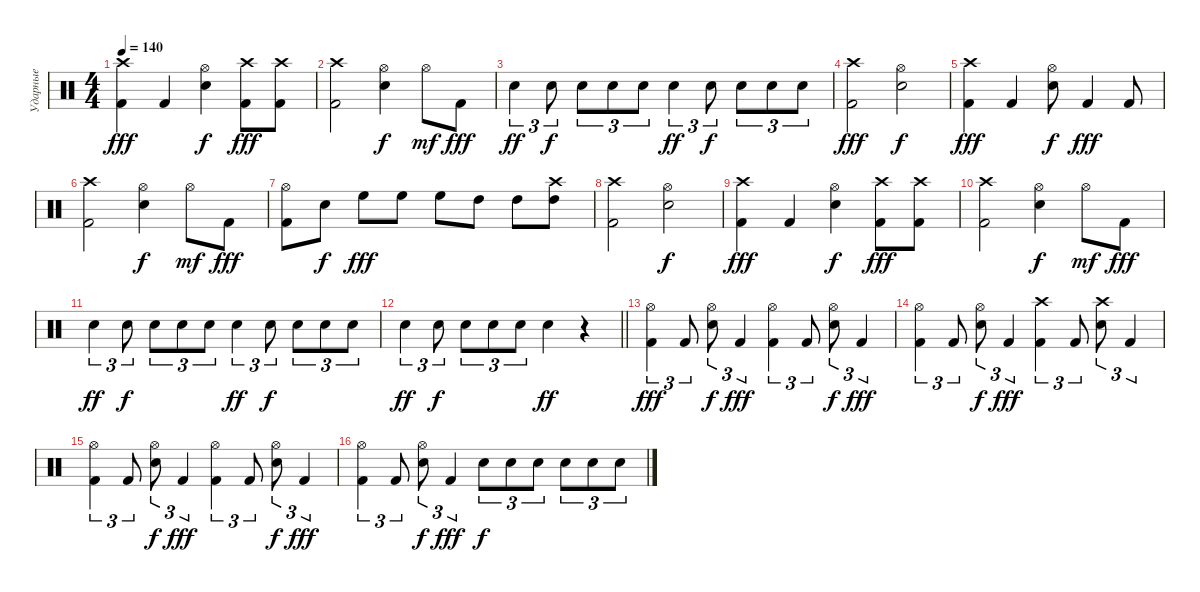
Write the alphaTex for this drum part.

\track ("Ударные" "Ударные") {instrument percussion}
\staff {score}
\articulation defaults
\ts (4 4)
\tempo 140
\clef neutral
\ks c
("Kick (hit) 2" "Crash high (hit)").4{dy fff} "Kick (hit) 2".4 ("Snare (hit) 2" "Hi-Hat (open)").4{dy f} ("Kick (hit) 2" "Crash high (hit)").8{dy fff} ("Kick (hit) 2" "Crash high (hit)").8 |
("Kick (hit) 2" "Crash high (hit)").2 ("Snare (hit) 2" "Hi-Hat (open)").4{dy f} "Hi-Hat (open)".8{dy mf} "Kick (hit) 2".8{dy fff} |
"Snare (hit) 2".4{tu (3 2) dy ff} "Snare (hit) 2".8{tu (3 2) dy f} "Snare (hit) 2".8{tu (3 2)} "Snare (hit) 2".8{tu (3 2)} "Snare (hit) 2".8{tu (3 2)} "Snare (hit) 2".4{tu (3 2) dy ff} "Snare (hit) 2".8{tu (3 2) dy f} "Snare (hit) 2".8{tu (3 2)} "Snare (hit) 2".8{tu (3 2)} "Snare (hit) 2".8{tu (3 2)} |
("Kick (hit) 2" "Crash high (hit)").2{dy fff} ("Snare (hit) 2" "Hi-Hat (open)").2{dy f} |
("Kick (hit) 2" "Crash high (hit)").4{dy fff} "Kick (hit) 2".4 ("Snare (hit) 2" "Hi-Hat (open)").8{dy f} "Kick (hit) 2".4{dy fff} "Kick (hit) 2".8 |
("Kick (hit) 2" "Crash high (hit)").2 ("Snare (hit) 2" "Hi-Hat (open)").4{dy f} "Hi-Hat (open)".8{dy mf} "Kick (hit) 2".8{dy fff} |
("Kick (hit) 2" "Hi-Hat (open)").8 "Snare (hit) 2".8{dy f} "High Floor Tom (hit)".8{dy fff} "High Floor Tom (hit)".8 "High Floor Tom (hit)".8 "High Tom (hit)".8 "High Tom (hit)".8 ("High Tom (hit)" "Crash high (hit)").8 |
("Kick (hit) 2" "Crash high (hit)").2 ("Snare (hit) 2" "Hi-Hat (open)").2{dy f} |
("Kick (hit) 2" "Crash high (hit)").4{dy fff} "Kick (hit) 2".4 ("Snare (hit) 2" "Hi-Hat (open)").4{dy f} ("Kick (hit) 2" "Crash high (hit)").8{dy fff} ("Kick (hit) 2" "Crash high (hit)").8 |
("Kick (hit) 2" "Crash high (hit)").2 ("Snare (hit) 2" "Hi-Hat (open)").4{dy f} "Hi-Hat (open)".8{dy mf} "Kick (hit) 2".8{dy fff} |
"Snare (hit) 2".4{tu (3 2) dy ff} "Snare (hit) 2".8{tu (3 2) dy f} "Snare (hit) 2".8{tu (3 2)} "Snare (hit) 2".8{tu (3 2)} "Snare (hit) 2".8{tu (3 2)} "Snare (hit) 2".4{tu (3 2) dy ff} "Snare (hit) 2".8{tu (3 2) dy f} "Snare (hit) 2".8{tu (3 2)} "Snare (hit) 2".8{tu (3 2)} "Snare (hit) 2".8{tu (3 2)} |
\barLineRight lightlight "Snare (hit) 2".4{tu (3 2) dy ff} "Snare (hit) 2".8{tu (3 2) dy f} "Snare (hit) 2".8{tu (3 2)} "Snare (hit) 2".8{tu (3 2)} "Snare (hit) 2".8{tu (3 2)} "Snare (hit) 2".4{dy ff}
r.4 |
("Kick (hit) 2" "Hi-Hat (open)").4{tu (3 2) dy fff} "Kick (hit) 2".8{tu (3 2)} ("Snare (hit) 2" "Hi-Hat (open)").8{tu (3 2) dy f} "Kick (hit) 2".4{tu (3 2) dy fff} ("Kick (hit) 2" "Hi-Hat (open)").4{tu (3 2)} "Kick (hit) 2".8{tu (3 2)} ("Snare (hit) 2" "Hi-Hat (open)").8{tu (3 2) dy f} "Kick (hit) 2".4{tu (3 2) dy fff} |
("Kick (hit) 2" "Hi-Hat (open)").4{tu (3 2)} "Kick (hit) 2".8{tu (3 2)} ("Snare (hit) 2" "Hi-Hat (open)").8{tu (3 2) dy f} "Kick (hit) 2".4{tu (3 2) dy fff} ("Kick (hit) 2" "Crash high (hit)").4{tu (3 2)} "Kick (hit) 2".8{tu (3 2)} ("Snare (hit) 2" "Crash high (hit)").8{tu (3 2)} "Kick (hit) 2".4{tu (3 2)} |
("Kick (hit) 2" "Hi-Hat (open)").4{tu (3 2)} "Kick (hit) 2".8{tu (3 2)} ("Snare (hit) 2" "Hi-Hat (open)").8{tu (3 2) dy f} "Kick (hit) 2".4{tu (3 2) dy fff} ("Kick (hit) 2" "Hi-Hat (open)").4{tu (3 2)} "Kick (hit) 2".8{tu (3 2)} ("Snare (hit) 2" "Hi-Hat (open)").8{tu (3 2) dy f} "Kick (hit) 2".4{tu (3 2) dy fff} |
("Kick (hit) 2" "Hi-Hat (open)").4{tu (3 2)} "Kick (hit) 2".8{tu (3 2)} ("Snare (hit) 2" "Hi-Hat (open)").8{tu (3 2) dy f} "Kick (hit) 2".4{tu (3 2) dy fff} "Snare (hit) 2".8{tu (3 2) dy f} "Snare (hit) 2".8{tu (3 2)} "Snare (hit) 2".8{tu (3 2)} "Snare (hit) 2".8{tu (3 2)} "Snare (hit) 2".8{tu (3 2)} "Snare (hit) 2".8{tu (3 2)}
